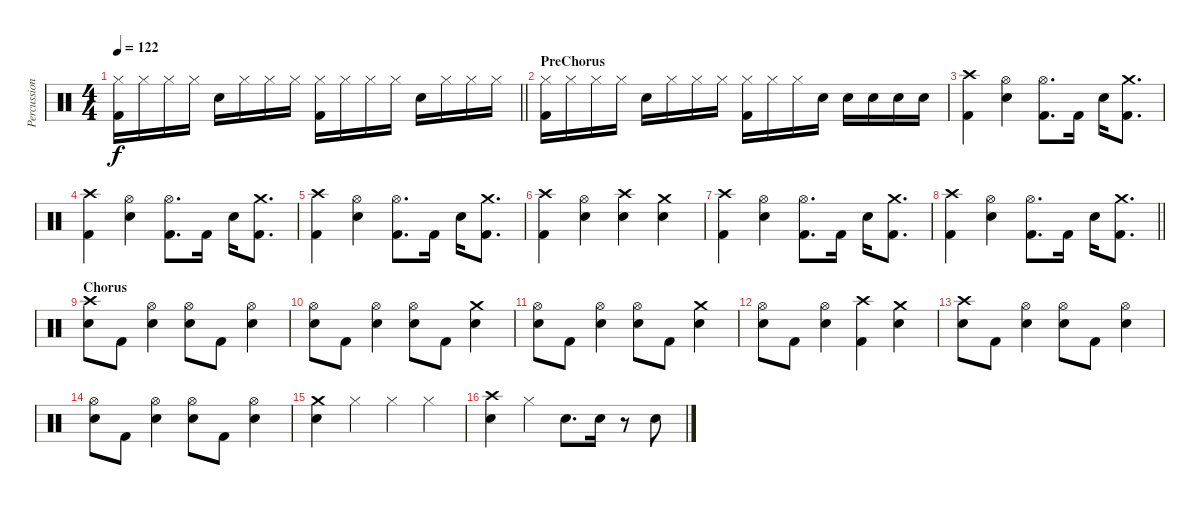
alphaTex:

\track ("Percussion" "Percussion") {instrument percussion}
\staff {score}
\articulation defaults
\ts (4 4)
\tempo 122
\clef neutral
\barLineRight lightlight
\ks c
("Hi-Hat (closed)" "Kick (hit) 2").16{dy f} "Hi-Hat (closed)".16 "Hi-Hat (closed)".16 "Hi-Hat (closed)".16 "Electric Snare (hit)".16 "Hi-Hat (closed)".16 "Hi-Hat (closed)".16 "Hi-Hat (closed)".16 ("Hi-Hat (closed)" "Kick (hit) 2").16 "Hi-Hat (closed)".16 "Hi-Hat (closed)".16 "Hi-Hat (closed)".16 "Electric Snare (hit)".16 "Hi-Hat (closed)".16 "Hi-Hat (closed)".16 "Hi-Hat (closed)".16 |
\section ("" "PreChorus")
("Hi-Hat (closed)" "Kick (hit) 2").16 "Hi-Hat (closed)".16 "Hi-Hat (closed)".16 "Hi-Hat (closed)".16 "Electric Snare (hit)".16 "Hi-Hat (closed)".16 "Hi-Hat (closed)".16 "Hi-Hat (closed)".16 ("Hi-Hat (closed)" "Kick (hit) 2").16 "Hi-Hat (closed)".16 "Hi-Hat (closed)".16 "Electric Snare (hit)".16 "Electric Snare (hit)".16 "Electric Snare (hit)".16 "Electric Snare (hit)".16 "Electric Snare (hit)".16 |
("Crash high (hit)" "Kick (hit) 2").4 ("Hi-Hat (open)" "Electric Snare (hit)").4 ("Hi-Hat (open)" "Kick (hit) 2").8{d} "Kick (hit) 2".16 "Electric Snare (hit)".16 ("Crash medium (hit)" "Kick (hit) 2").8{d} |
("Crash high (hit)" "Kick (hit) 2").4 ("Hi-Hat (open)" "Electric Snare (hit)").4 ("Hi-Hat (open)" "Kick (hit) 2").8{d} "Kick (hit) 2".16 "Electric Snare (hit)".16 ("Crash medium (hit)" "Kick (hit) 2").8{d} |
("Crash high (hit)" "Kick (hit) 2").4 ("Hi-Hat (open)" "Electric Snare (hit)").4 ("Hi-Hat (open)" "Kick (hit) 2").8{d} "Kick (hit) 2".16 "Electric Snare (hit)".16 ("Crash medium (hit)" "Kick (hit) 2").8{d} |
("Crash high (hit)" "Kick (hit) 2").4 ("Hi-Hat (open)" "Electric Snare (hit)").4 ("Crash high (hit)" "Electric Snare (hit)").4 ("Crash medium (hit)" "Electric Snare (hit)").4 |
("Crash high (hit)" "Kick (hit) 2").4 ("Hi-Hat (open)" "Electric Snare (hit)").4 ("Hi-Hat (open)" "Kick (hit) 2").8{d} "Kick (hit) 2".16 "Electric Snare (hit)".16 ("Crash medium (hit)" "Kick (hit) 2").8{d} |
\barLineRight lightlight
("Crash high (hit)" "Kick (hit) 2").4 ("Hi-Hat (open)" "Electric Snare (hit)").4 ("Hi-Hat (open)" "Kick (hit) 2").8{d} "Kick (hit) 2".16 "Electric Snare (hit)".16 ("Crash medium (hit)" "Kick (hit) 2").8{d} |
\section ("" "Chorus")
("Crash high (hit)" "Electric Snare (hit)").8 "Kick (hit) 2".8 ("Hi-Hat (open)" "Electric Snare (hit)").4 ("Hi-Hat (open)" "Electric Snare (hit)").8 "Kick (hit) 2".8 ("Hi-Hat (open)" "Electric Snare (hit)").4 |
("Hi-Hat (open)" "Electric Snare (hit)").8 "Kick (hit) 2".8 ("Hi-Hat (open)" "Electric Snare (hit)").4 ("Hi-Hat (open)" "Electric Snare (hit)").8 "Kick (hit) 2".8 ("Crash medium (hit)" "Electric Snare (hit)").4 |
("Hi-Hat (open)" "Electric Snare (hit)").8 "Kick (hit) 2".8 ("Hi-Hat (open)" "Electric Snare (hit)").4 ("Hi-Hat (open)" "Electric Snare (hit)").8 "Kick (hit) 2".8 ("Crash medium (hit)" "Electric Snare (hit)").4 |
("Hi-Hat (open)" "Electric Snare (hit)").8 "Kick (hit) 2".8 ("Hi-Hat (open)" "Electric Snare (hit)").4 ("Crash high (hit)" "Kick (hit) 2").4 ("Crash medium (hit)" "Electric Snare (hit)").4 |
("Crash high (hit)" "Electric Snare (hit)").8 "Kick (hit) 2".8 ("Hi-Hat (open)" "Electric Snare (hit)").4 ("Hi-Hat (open)" "Electric Snare (hit)").8 "Kick (hit) 2".8 ("Hi-Hat (open)" "Electric Snare (hit)").4 |
("Hi-Hat (open)" "Electric Snare (hit)").8 "Kick (hit) 2".8 ("Hi-Hat (open)" "Electric Snare (hit)").4 ("Hi-Hat (open)" "Electric Snare (hit)").8 "Kick (hit) 2".8 ("Hi-Hat (open)" "Electric Snare (hit)").4 |
("Crash medium (hit)" "Electric Snare (hit)").4 "Hi-Hat (closed)".4 "Hi-Hat (closed)".4 "Hi-Hat (closed)".4 |
("Crash high (hit)" "Electric Snare (hit)").4 "Hi-Hat (closed)".4 "Electric Snare (hit)".8{d} "Electric Snare (hit)".16 r.8 "Electric Snare (hit)".8
